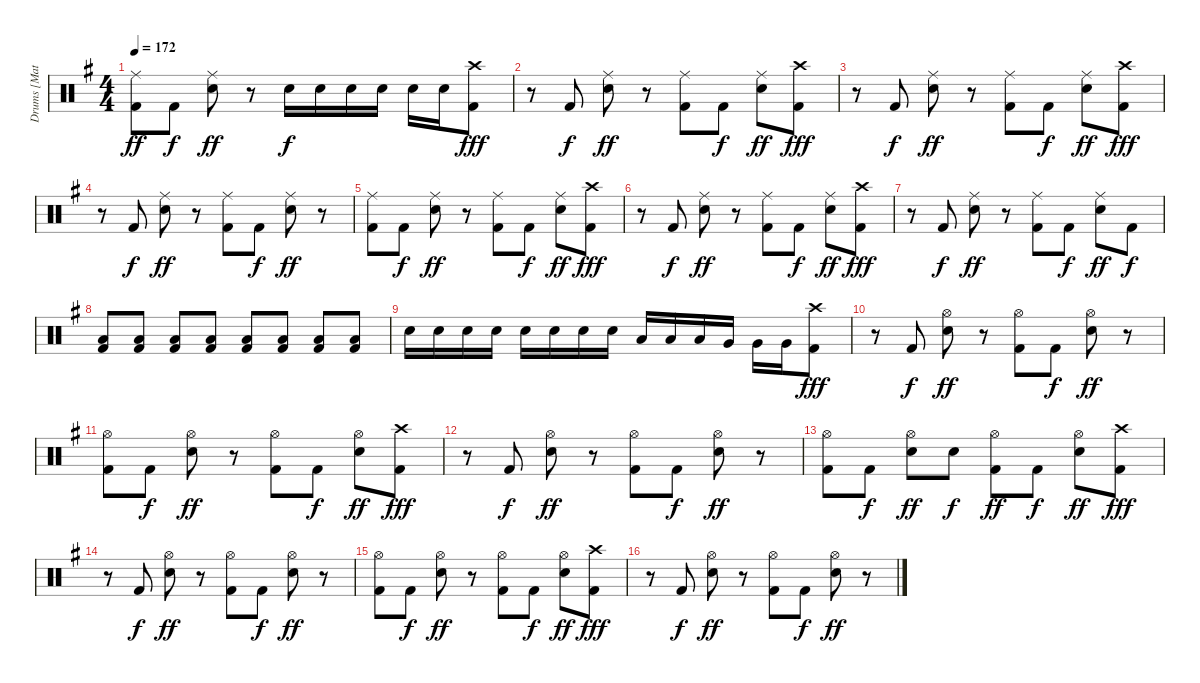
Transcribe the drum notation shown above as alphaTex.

\track ("Drums [Matt]" "Drums [Mat") {instrument percussion}
\staff {score}
\articulation defaults
\ts (4 4)
\tempo 172
\clef neutral
\ks g
("Ride (middle)" "Kick (hit) 2").8{dy ff} "Kick (hit) 2".8{dy f} ("Ride (middle)" "Snare (hit) 2").8{dy ff} r.8 "Snare (hit) 2".16{dy f} "Snare (hit) 2".16 "Snare (hit) 2".16 "Snare (hit) 2".16 "Snare (hit) 2".16 "Snare (hit) 2".16 ("Kick (hit) 2" "Crash high (hit)").8{dy fff} |
r.8 "Kick (hit) 2".8{dy f} ("Ride (middle)" "Snare (hit) 2").8{dy ff} r.8 ("Ride (middle)" "Kick (hit) 2").8 "Kick (hit) 2".8{dy f} ("Ride (middle)" "Snare (hit) 2").8{dy ff} ("Kick (hit) 2" "Crash high (hit)").8{dy fff} |
r.8 "Kick (hit) 2".8{dy f} ("Ride (middle)" "Snare (hit) 2").8{dy ff} r.8 ("Ride (middle)" "Kick (hit) 2").8 "Kick (hit) 2".8{dy f} ("Ride (middle)" "Snare (hit) 2").8{dy ff} ("Kick (hit) 2" "Crash high (hit)").8{dy fff} |
r.8 "Kick (hit) 2".8{dy f} ("Ride (middle)" "Snare (hit) 2").8{dy ff} r.8 ("Ride (middle)" "Kick (hit) 2").8 "Kick (hit) 2".8{dy f} ("Ride (middle)" "Snare (hit) 2").8{dy ff} r.8 |
("Ride (middle)" "Kick (hit) 2").8 "Kick (hit) 2".8{dy f} ("Ride (middle)" "Snare (hit) 2").8{dy ff} r.8 ("Ride (middle)" "Kick (hit) 2").8 "Kick (hit) 2".8{dy f} ("Ride (middle)" "Snare (hit) 2").8{dy ff} ("Kick (hit) 2" "Crash high (hit)").8{dy fff} |
r.8 "Kick (hit) 2".8{dy f} ("Ride (middle)" "Snare (hit) 2").8{dy ff} r.8 ("Ride (middle)" "Kick (hit) 2").8 "Kick (hit) 2".8{dy f} ("Ride (middle)" "Snare (hit) 2").8{dy ff} ("Kick (hit) 2" "Crash high (hit)").8{dy fff} |
r.8 "Kick (hit) 2".8{dy f} ("Ride (middle)" "Snare (hit) 2").8{dy ff} r.8 ("Ride (middle)" "Kick (hit) 2").8 "Kick (hit) 2".8{dy f} ("Ride (middle)" "Snare (hit) 2").8{dy ff} "Kick (hit) 2".8{dy f} |
("Kick (hit) 2" "Low Tom (hit)").8 ("Kick (hit) 2" "Low Tom (hit)").8 ("Kick (hit) 2" "Low Tom (hit)").8 ("Kick (hit) 2" "Low Tom (hit)").8 ("Kick (hit) 2" "Low Tom (hit)").8 ("Kick (hit) 2" "Low Tom (hit)").8 ("Kick (hit) 2" "Low Tom (hit)").8 ("Kick (hit) 2" "Low Tom (hit)").8 |
"Snare (hit) 2".16 "Snare (hit) 2".16 "Snare (hit) 2".16 "Snare (hit) 2".16 "Snare (hit) 2".16 "Snare (hit) 2".16 "Snare (hit) 2".16 "Snare (hit) 2".16 "Low Tom (hit)".16 "Low Tom (hit)".16 "Low Tom (hit)".16 "Very Low Tom (hit)".16 "Very Low Tom (hit)".16 "Very Low Tom (hit)".16 ("Kick (hit) 2" "Crash high (hit)").8{dy fff} |
r.8 "Kick (hit) 2".8{dy f} ("Hi-Hat (open)" "Snare (hit) 2").8{dy ff} r.8 ("Hi-Hat (open)" "Kick (hit) 2").8 "Kick (hit) 2".8{dy f} ("Hi-Hat (open)" "Snare (hit) 2").8{dy ff} r.8 |
("Hi-Hat (open)" "Kick (hit) 2").8 "Kick (hit) 2".8{dy f} ("Hi-Hat (open)" "Snare (hit) 2").8{dy ff} r.8 ("Hi-Hat (open)" "Kick (hit) 2").8 "Kick (hit) 2".8{dy f} ("Hi-Hat (open)" "Snare (hit) 2").8{dy ff} ("Kick (hit) 2" "Crash high (hit)").8{dy fff} |
r.8 "Kick (hit) 2".8{dy f} ("Hi-Hat (open)" "Snare (hit) 2").8{dy ff} r.8 ("Hi-Hat (open)" "Kick (hit) 2").8 "Kick (hit) 2".8{dy f} ("Hi-Hat (open)" "Snare (hit) 2").8{dy ff} r.8 |
("Hi-Hat (open)" "Kick (hit) 2").8 "Kick (hit) 2".8{dy f} ("Hi-Hat (open)" "Snare (hit) 2").8{dy ff} "Snare (hit) 2".8{dy f} ("Hi-Hat (open)" "Kick (hit) 2").8{dy ff} "Kick (hit) 2".8{dy f} ("Hi-Hat (open)" "Snare (hit) 2").8{dy ff} ("Kick (hit) 2" "Crash high (hit)").8{dy fff} |
r.8 "Kick (hit) 2".8{dy f} ("Hi-Hat (open)" "Snare (hit) 2").8{dy ff} r.8 ("Hi-Hat (open)" "Kick (hit) 2").8 "Kick (hit) 2".8{dy f} ("Hi-Hat (open)" "Snare (hit) 2").8{dy ff} r.8 |
("Hi-Hat (open)" "Kick (hit) 2").8 "Kick (hit) 2".8{dy f} ("Hi-Hat (open)" "Snare (hit) 2").8{dy ff} r.8 ("Hi-Hat (open)" "Kick (hit) 2").8 "Kick (hit) 2".8{dy f} ("Hi-Hat (open)" "Snare (hit) 2").8{dy ff} ("Kick (hit) 2" "Crash high (hit)").8{dy fff} |
r.8 "Kick (hit) 2".8{dy f} ("Hi-Hat (open)" "Snare (hit) 2").8{dy ff} r.8 ("Hi-Hat (open)" "Kick (hit) 2").8 "Kick (hit) 2".8{dy f} ("Hi-Hat (open)" "Snare (hit) 2").8{dy ff} r.8
